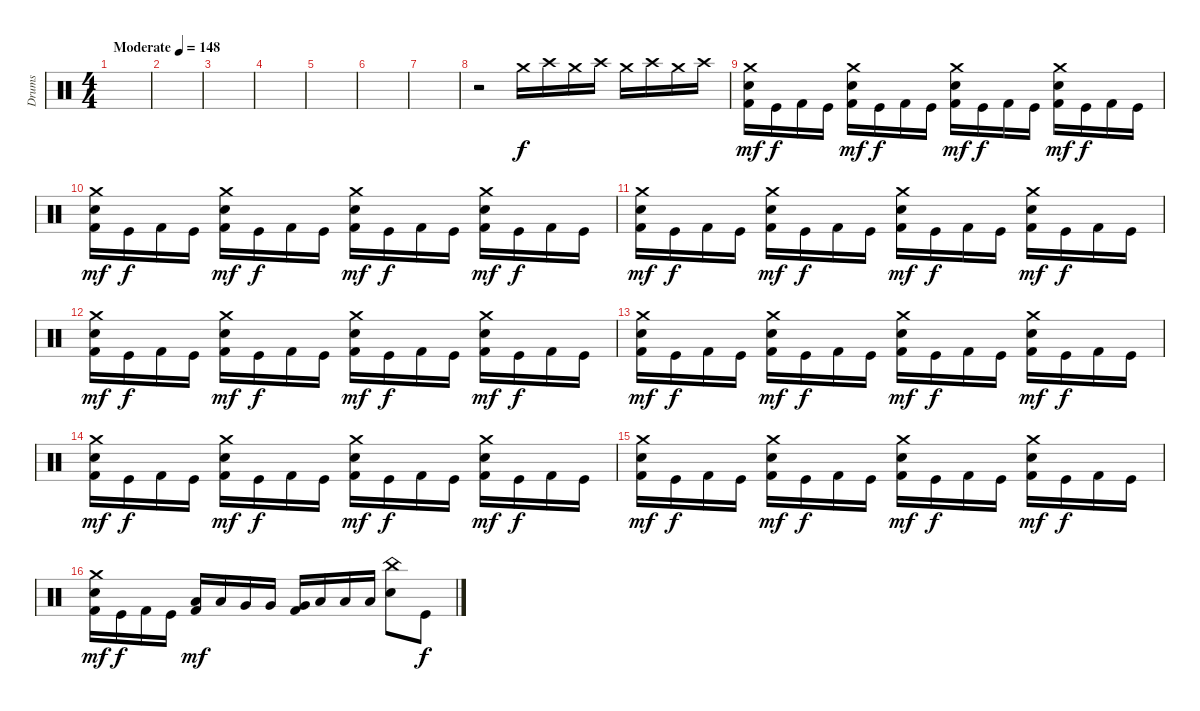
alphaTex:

\track ("Drums" "Drums") {instrument percussion}
\staff
\articulation defaults
\ts (4 4)
\tempo (148 "Moderate")
\clef neutral
\ks c
|
|
|
|
|
|
|
r.2 "Crash medium (hit)".16{volume 3} "Crash high (hit)".16{volume 5} "Crash medium (hit)".16{volume 7} "Crash high (hit)".16{volume 8} "Crash medium (hit)".16{volume 10} "Crash high (hit)".16{volume 11} "Crash medium (hit)".16{volume 12} "Crash high (hit)".16{volume 13} |
("Crash medium (hit)" "Snare (hit) 2" "Kick (hit) 2").16{dy mf} "Kick (hit)".16{dy f} "Kick (hit) 2".16 "Kick (hit)".16 ("Crash medium (hit)" "Snare (hit) 2" "Kick (hit) 2").16{dy mf} "Kick (hit)".16{dy f} "Kick (hit) 2".16 "Kick (hit)".16 ("Crash medium (hit)" "Snare (hit) 2" "Kick (hit) 2").16{dy mf} "Kick (hit)".16{dy f} "Kick (hit) 2".16 "Kick (hit)".16 ("Crash medium (hit)" "Snare (hit) 2" "Kick (hit) 2").16{dy mf} "Kick (hit)".16{dy f} "Kick (hit) 2".16 "Kick (hit)".16 |
("Crash medium (hit)" "Snare (hit) 2" "Kick (hit) 2").16{dy mf} "Kick (hit)".16{dy f} "Kick (hit) 2".16 "Kick (hit)".16 ("Crash medium (hit)" "Snare (hit) 2" "Kick (hit) 2").16{dy mf} "Kick (hit)".16{dy f} "Kick (hit) 2".16 "Kick (hit)".16 ("Crash medium (hit)" "Snare (hit) 2" "Kick (hit) 2").16{dy mf} "Kick (hit)".16{dy f} "Kick (hit) 2".16 "Kick (hit)".16 ("Crash medium (hit)" "Snare (hit) 2" "Kick (hit) 2").16{dy mf} "Kick (hit)".16{dy f} "Kick (hit) 2".16 "Kick (hit)".16 |
("Crash medium (hit)" "Snare (hit) 2" "Kick (hit) 2").16{dy mf} "Kick (hit)".16{dy f} "Kick (hit) 2".16 "Kick (hit)".16 ("Crash medium (hit)" "Snare (hit) 2" "Kick (hit) 2").16{dy mf} "Kick (hit)".16{dy f} "Kick (hit) 2".16 "Kick (hit)".16 ("Crash medium (hit)" "Snare (hit) 2" "Kick (hit) 2").16{dy mf} "Kick (hit)".16{dy f} "Kick (hit) 2".16 "Kick (hit)".16 ("Crash medium (hit)" "Snare (hit) 2" "Kick (hit) 2").16{dy mf} "Kick (hit)".16{dy f} "Kick (hit) 2".16 "Kick (hit)".16 |
("Crash medium (hit)" "Snare (hit) 2" "Kick (hit) 2").16{dy mf} "Kick (hit)".16{dy f} "Kick (hit) 2".16 "Kick (hit)".16 ("Crash medium (hit)" "Snare (hit) 2" "Kick (hit) 2").16{dy mf} "Kick (hit)".16{dy f} "Kick (hit) 2".16 "Kick (hit)".16 ("Crash medium (hit)" "Snare (hit) 2" "Kick (hit) 2").16{dy mf} "Kick (hit)".16{dy f} "Kick (hit) 2".16 "Kick (hit)".16 ("Crash medium (hit)" "Snare (hit) 2" "Kick (hit) 2").16{dy mf} "Kick (hit)".16{dy f} "Kick (hit) 2".16 "Kick (hit)".16 |
("Crash medium (hit)" "Snare (hit) 2" "Kick (hit) 2").16{dy mf} "Kick (hit)".16{dy f} "Kick (hit) 2".16 "Kick (hit)".16 ("Crash medium (hit)" "Snare (hit) 2" "Kick (hit) 2").16{dy mf} "Kick (hit)".16{dy f} "Kick (hit) 2".16 "Kick (hit)".16 ("Crash medium (hit)" "Snare (hit) 2" "Kick (hit) 2").16{dy mf} "Kick (hit)".16{dy f} "Kick (hit) 2".16 "Kick (hit)".16 ("Crash medium (hit)" "Snare (hit) 2" "Kick (hit) 2").16{dy mf} "Kick (hit)".16{dy f} "Kick (hit) 2".16 "Kick (hit)".16 |
("Crash medium (hit)" "Snare (hit) 2" "Kick (hit) 2").16{dy mf} "Kick (hit)".16{dy f} "Kick (hit) 2".16 "Kick (hit)".16 ("Crash medium (hit)" "Snare (hit) 2" "Kick (hit) 2").16{dy mf} "Kick (hit)".16{dy f} "Kick (hit) 2".16 "Kick (hit)".16 ("Crash medium (hit)" "Snare (hit) 2" "Kick (hit) 2").16{dy mf} "Kick (hit)".16{dy f} "Kick (hit) 2".16 "Kick (hit)".16 ("Crash medium (hit)" "Snare (hit) 2" "Kick (hit) 2").16{dy mf} "Kick (hit)".16{dy f} "Kick (hit) 2".16 "Kick (hit)".16 |
("Crash medium (hit)" "Snare (hit) 2" "Kick (hit) 2").16{dy mf} "Kick (hit)".16{dy f} "Kick (hit) 2".16 "Kick (hit)".16 ("Crash medium (hit)" "Snare (hit) 2" "Kick (hit) 2").16{dy mf} "Kick (hit)".16{dy f} "Kick (hit) 2".16 "Kick (hit)".16 ("Crash medium (hit)" "Snare (hit) 2" "Kick (hit) 2").16{dy mf} "Kick (hit)".16{dy f} "Kick (hit) 2".16 "Kick (hit)".16 ("Crash medium (hit)" "Snare (hit) 2" "Kick (hit) 2").16{dy mf} "Kick (hit)".16{dy f} "Kick (hit) 2".16 "Kick (hit)".16 |
("Crash medium (hit)" "Snare (hit) 2" "Kick (hit) 2").16{dy mf} "Kick (hit)".16{dy f} "Kick (hit) 2".16 "Kick (hit)".16 ("Low Tom (hit)" "Kick (hit) 2").16{dy mf} "Low Tom (hit)".16 "Very Low Tom (hit)".16 "Very Low Tom (hit)".16 ("Very Low Tom (hit)" "Kick (hit) 2").16 "Low Floor Tom (hit)".16 "Low Floor Tom (hit)".16 "Low Floor Tom (hit)".16 ("China (hit)" "Snare (hit) 2").8 "Kick (hit)".8{dy f}
